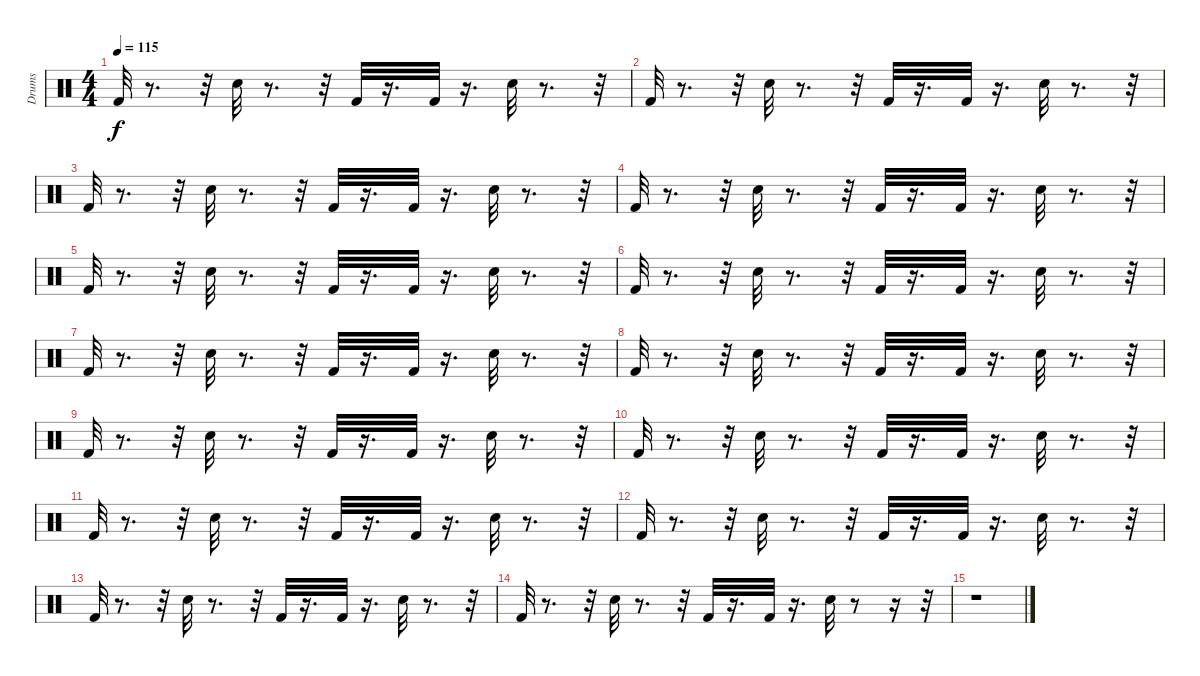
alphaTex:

\track ("Drums" "Drums") {instrument percussion}
\staff {score}
\articulation defaults
\ts (4 4)
\tempo 115
\clef neutral
\ks c "Kick (hit) 2".32{dy f}
r.8{d} r.32 "Snare (hit) 2".32 r.8{d} r.32 "Kick (hit) 2".32 r.16{d} "Kick (hit) 2".32 r.16{d} "Snare (hit) 2".32 r.8{d} r.32 |
"Kick (hit) 2".32 r.8{d} r.32 "Snare (hit) 2".32 r.8{d} r.32 "Kick (hit) 2".32 r.16{d} "Kick (hit) 2".32 r.16{d} "Snare (hit) 2".32 r.8{d} r.32 |
"Kick (hit) 2".32 r.8{d} r.32 "Snare (hit) 2".32 r.8{d} r.32 "Kick (hit) 2".32 r.16{d} "Kick (hit) 2".32 r.16{d} "Snare (hit) 2".32 r.8{d} r.32 |
"Kick (hit) 2".32 r.8{d} r.32 "Snare (hit) 2".32 r.8{d} r.32 "Kick (hit) 2".32 r.16{d} "Kick (hit) 2".32 r.16{d} "Snare (hit) 2".32 r.8{d} r.32 |
"Kick (hit) 2".32{volume 9} r.8{d} r.32 "Snare (hit) 2".32{volume 9} r.8{d} r.32 "Kick (hit) 2".32{volume 9} r.16{d} "Kick (hit) 2".32{volume 9} r.16{d} "Snare (hit) 2".32{volume 9} r.8{d} r.32 |
"Kick (hit) 2".32{volume 9} r.8{d} r.32 "Snare (hit) 2".32{volume 8} r.8{d} r.32 "Kick (hit) 2".32{volume 8} r.16{d} "Kick (hit) 2".32{volume 8} r.16{d} "Snare (hit) 2".32 r.8{d} r.32 |
"Kick (hit) 2".32{volume 8} r.8{d} r.32 "Snare (hit) 2".32{volume 8} r.8{d} r.32 "Kick (hit) 2".32{volume 7} r.16{d} "Kick (hit) 2".32 r.16{d} "Snare (hit) 2".32{volume 7} r.8{d} r.32 |
"Kick (hit) 2".32{volume 7} r.8{d} r.32 "Snare (hit) 2".32{volume 7} r.8{d} r.32 "Kick (hit) 2".32{volume 6} r.16{d} "Kick (hit) 2".32{volume 6} r.16{d} "Snare (hit) 2".32{volume 6} r.8{d} r.32 |
"Kick (hit) 2".32{volume 6} r.8{d} r.32 "Snare (hit) 2".32{volume 6} r.8{d} r.32 "Kick (hit) 2".32{volume 6} r.16{d} "Kick (hit) 2".32{volume 6} r.16{d} "Snare (hit) 2".32{volume 5} r.8{d} r.32 |
"Kick (hit) 2".32{volume 5} r.8{d} r.32 "Snare (hit) 2".32{volume 5} r.8{d} r.32 "Kick (hit) 2".32{volume 5} r.16{d} "Kick (hit) 2".32{volume 5} r.16{d} "Snare (hit) 2".32{volume 4} r.8{d} r.32 |
"Kick (hit) 2".32{volume 4} r.8{d} r.32 "Snare (hit) 2".32{volume 4} r.8{d} r.32 "Kick (hit) 2".32{volume 4} r.16{d} "Kick (hit) 2".32{volume 4} r.16{d} "Snare (hit) 2".32{volume 4} r.8{d} r.32 |
"Kick (hit) 2".32{volume 4} r.8{d} r.32 "Snare (hit) 2".32{volume 3} r.8{d} r.32 "Kick (hit) 2".32{volume 3} r.16{d} "Kick (hit) 2".32{volume 3} r.16{d} "Snare (hit) 2".32 r.8{d} r.32 |
"Kick (hit) 2".32{volume 3} r.8{d} r.32 "Snare (hit) 2".32{volume 2} r.8{d} r.32 "Kick (hit) 2".32{volume 2} r.16{d} "Kick (hit) 2".32{volume 2} r.16{d} "Snare (hit) 2".32{volume 2} r.8{d} r.32 |
"Kick (hit) 2".32{volume 2} r.8{d} r.32 "Snare (hit) 2".32{volume 2} r.8{d} r.32 "Kick (hit) 2".32{volume 1} r.16{d} "Kick (hit) 2".32{volume 1} r.16{d} "Snare (hit) 2".32{volume 1} r.8 r.16 r.32 |
r.1
